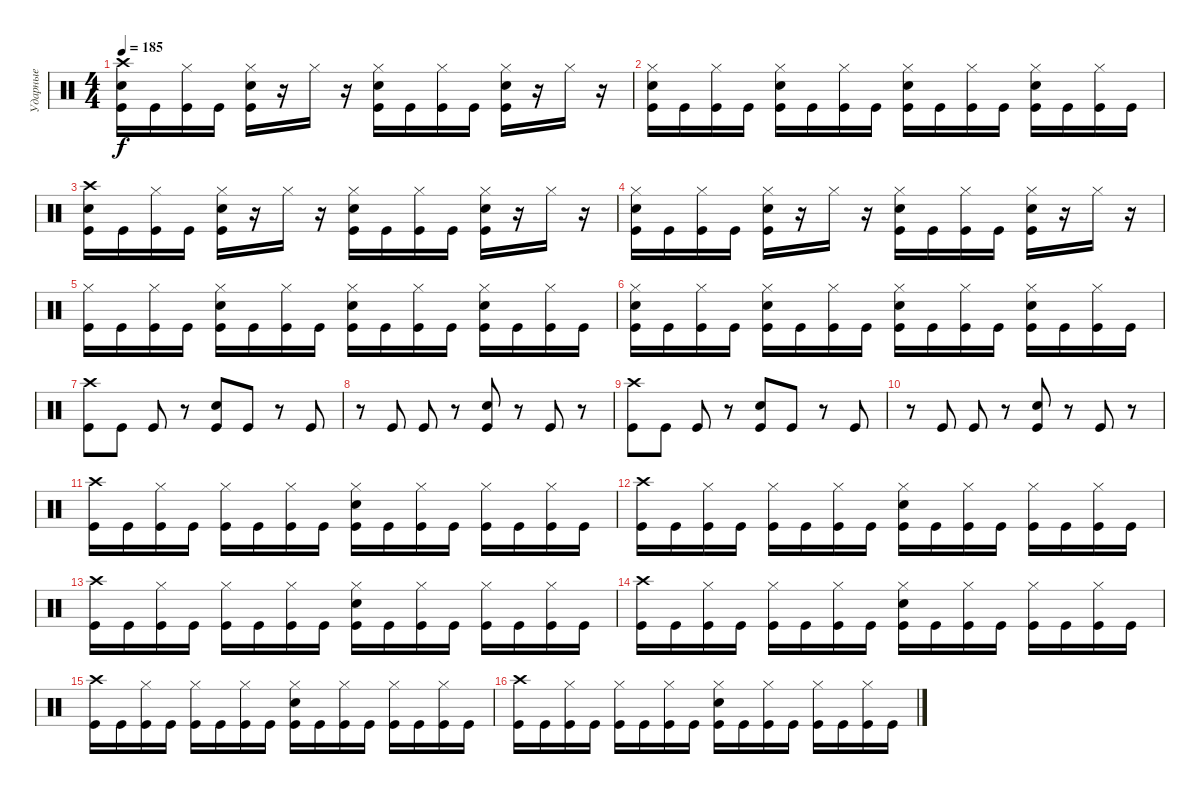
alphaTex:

\track ("Ударные" "Ударные") {instrument percussion}
\staff {score}
\articulation defaults
\ts (4 4)
\tempo 185
\clef neutral
\ks c
("Crash high (hit)" "Electric Snare (hit)" "Kick (hit)").16{dy f} "Kick (hit)".16 ("Hi-Hat (closed)" "Kick (hit)").16 "Kick (hit)".16 ("Hi-Hat (closed)" "Electric Snare (hit)" "Kick (hit)").16 r.16 "Hi-Hat (closed)".16 r.16 ("Hi-Hat (closed)" "Electric Snare (hit)" "Kick (hit)").16 "Kick (hit)".16 ("Hi-Hat (closed)" "Kick (hit)").16 "Kick (hit)".16 ("Hi-Hat (closed)" "Electric Snare (hit)" "Kick (hit)").16 r.16 "Hi-Hat (closed)".16 r.16 |
("Hi-Hat (closed)" "Electric Snare (hit)" "Kick (hit)").16 "Kick (hit)".16 ("Hi-Hat (closed)" "Kick (hit)").16 "Kick (hit)".16 ("Hi-Hat (closed)" "Electric Snare (hit)" "Kick (hit)").16 "Kick (hit)".16 ("Hi-Hat (closed)" "Kick (hit)").16 "Kick (hit)".16 ("Hi-Hat (closed)" "Electric Snare (hit)" "Kick (hit)").16 "Kick (hit)".16 ("Hi-Hat (closed)" "Kick (hit)").16 "Kick (hit)".16 ("Hi-Hat (closed)" "Electric Snare (hit)" "Kick (hit)").16 "Kick (hit)".16 ("Hi-Hat (closed)" "Kick (hit)").16 "Kick (hit)".16 |
("Crash high (hit)" "Electric Snare (hit)" "Kick (hit)").16 "Kick (hit)".16 ("Hi-Hat (closed)" "Kick (hit)").16 "Kick (hit)".16 ("Hi-Hat (closed)" "Electric Snare (hit)" "Kick (hit)").16 r.16 "Hi-Hat (closed)".16 r.16 ("Hi-Hat (closed)" "Electric Snare (hit)" "Kick (hit)").16 "Kick (hit)".16 ("Hi-Hat (closed)" "Kick (hit)").16 "Kick (hit)".16 ("Hi-Hat (closed)" "Electric Snare (hit)" "Kick (hit)").16 r.16 "Hi-Hat (closed)".16 r.16 |
("Hi-Hat (closed)" "Electric Snare (hit)" "Kick (hit)").16 "Kick (hit)".16 ("Hi-Hat (closed)" "Kick (hit)").16 "Kick (hit)".16 ("Hi-Hat (closed)" "Electric Snare (hit)" "Kick (hit)").16 r.16 "Hi-Hat (closed)".16 r.16 ("Hi-Hat (closed)" "Electric Snare (hit)" "Kick (hit)").16 "Kick (hit)".16 ("Hi-Hat (closed)" "Kick (hit)").16 "Kick (hit)".16 ("Hi-Hat (closed)" "Electric Snare (hit)" "Kick (hit)").16 r.16 "Hi-Hat (closed)".16 r.16 |
("Hi-Hat (closed)" "Kick (hit)").16 "Kick (hit)".16 ("Hi-Hat (closed)" "Kick (hit)").16 "Kick (hit)".16 ("Hi-Hat (closed)" "Electric Snare (hit)" "Kick (hit)").16 "Kick (hit)".16 ("Hi-Hat (closed)" "Kick (hit)").16 "Kick (hit)".16 ("Hi-Hat (closed)" "Electric Snare (hit)" "Kick (hit)").16 "Kick (hit)".16 ("Hi-Hat (closed)" "Kick (hit)").16 "Kick (hit)".16 ("Hi-Hat (closed)" "Electric Snare (hit)" "Kick (hit)").16 "Kick (hit)".16 ("Hi-Hat (closed)" "Kick (hit)").16 "Kick (hit)".16 |
("Hi-Hat (closed)" "Electric Snare (hit)" "Kick (hit)").16 "Kick (hit)".16 ("Hi-Hat (closed)" "Kick (hit)").16 "Kick (hit)".16 ("Hi-Hat (closed)" "Electric Snare (hit)" "Kick (hit)").16 "Kick (hit)".16 ("Hi-Hat (closed)" "Kick (hit)").16 "Kick (hit)".16 ("Hi-Hat (closed)" "Electric Snare (hit)" "Kick (hit)").16 "Kick (hit)".16 ("Hi-Hat (closed)" "Kick (hit)").16 "Kick (hit)".16 ("Hi-Hat (closed)" "Electric Snare (hit)" "Kick (hit)").16 "Kick (hit)".16 ("Hi-Hat (closed)" "Kick (hit)").16 "Kick (hit)".16 |
("Crash high (hit)" "Kick (hit)").8 "Kick (hit)".8 "Kick (hit)".8 r.8 ("Electric Snare (hit)" "Kick (hit)").8 "Kick (hit)".8 r.8 "Kick (hit)".8 |
r.8 "Kick (hit)".8 "Kick (hit)".8 r.8 ("Electric Snare (hit)" "Kick (hit)").8 r.8 "Kick (hit)".8 r.8 |
("Crash high (hit)" "Kick (hit)").8 "Kick (hit)".8 "Kick (hit)".8 r.8 ("Electric Snare (hit)" "Kick (hit)").8 "Kick (hit)".8 r.8 "Kick (hit)".8 |
r.8 "Kick (hit)".8 "Kick (hit)".8 r.8 ("Electric Snare (hit)" "Kick (hit)").8 r.8 "Kick (hit)".8 r.8 |
("Crash high (hit)" "Kick (hit)").16 "Kick (hit)".16 ("Hi-Hat (closed)" "Kick (hit)").16 "Kick (hit)".16 ("Hi-Hat (closed)" "Kick (hit)").16 "Kick (hit)".16 ("Hi-Hat (closed)" "Kick (hit)").16 "Kick (hit)".16 ("Hi-Hat (closed)" "Electric Snare (hit)" "Kick (hit)").16 "Kick (hit)".16 ("Hi-Hat (closed)" "Kick (hit)").16 "Kick (hit)".16 ("Hi-Hat (closed)" "Kick (hit)").16 "Kick (hit)".16 ("Hi-Hat (closed)" "Kick (hit)").16 "Kick (hit)".16 |
("Crash high (hit)" "Kick (hit)").16 "Kick (hit)".16 ("Hi-Hat (closed)" "Kick (hit)").16 "Kick (hit)".16 ("Hi-Hat (closed)" "Kick (hit)").16 "Kick (hit)".16 ("Hi-Hat (closed)" "Kick (hit)").16 "Kick (hit)".16 ("Hi-Hat (closed)" "Electric Snare (hit)" "Kick (hit)").16 "Kick (hit)".16 ("Hi-Hat (closed)" "Kick (hit)").16 "Kick (hit)".16 ("Hi-Hat (closed)" "Kick (hit)").16 "Kick (hit)".16 ("Hi-Hat (closed)" "Kick (hit)").16 "Kick (hit)".16 |
("Crash high (hit)" "Kick (hit)").16 "Kick (hit)".16 ("Hi-Hat (closed)" "Kick (hit)").16 "Kick (hit)".16 ("Hi-Hat (closed)" "Kick (hit)").16 "Kick (hit)".16 ("Hi-Hat (closed)" "Kick (hit)").16 "Kick (hit)".16 ("Hi-Hat (closed)" "Electric Snare (hit)" "Kick (hit)").16 "Kick (hit)".16 ("Hi-Hat (closed)" "Kick (hit)").16 "Kick (hit)".16 ("Hi-Hat (closed)" "Kick (hit)").16 "Kick (hit)".16 ("Hi-Hat (closed)" "Kick (hit)").16 "Kick (hit)".16 |
("Crash high (hit)" "Kick (hit)").16 "Kick (hit)".16 ("Hi-Hat (closed)" "Kick (hit)").16 "Kick (hit)".16 ("Hi-Hat (closed)" "Kick (hit)").16 "Kick (hit)".16 ("Hi-Hat (closed)" "Kick (hit)").16 "Kick (hit)".16 ("Hi-Hat (closed)" "Electric Snare (hit)" "Kick (hit)").16 "Kick (hit)".16 ("Hi-Hat (closed)" "Kick (hit)").16 "Kick (hit)".16 ("Hi-Hat (closed)" "Kick (hit)").16 "Kick (hit)".16 ("Hi-Hat (closed)" "Kick (hit)").16 "Kick (hit)".16 |
("Crash high (hit)" "Kick (hit)").16 "Kick (hit)".16 ("Hi-Hat (closed)" "Kick (hit)").16 "Kick (hit)".16 ("Hi-Hat (closed)" "Kick (hit)").16 "Kick (hit)".16 ("Hi-Hat (closed)" "Kick (hit)").16 "Kick (hit)".16 ("Hi-Hat (closed)" "Electric Snare (hit)" "Kick (hit)").16 "Kick (hit)".16 ("Hi-Hat (closed)" "Kick (hit)").16 "Kick (hit)".16 ("Hi-Hat (closed)" "Kick (hit)").16 "Kick (hit)".16 ("Hi-Hat (closed)" "Kick (hit)").16 "Kick (hit)".16 |
("Crash high (hit)" "Kick (hit)").16 "Kick (hit)".16 ("Hi-Hat (closed)" "Kick (hit)").16 "Kick (hit)".16 ("Hi-Hat (closed)" "Kick (hit)").16 "Kick (hit)".16 ("Hi-Hat (closed)" "Kick (hit)").16 "Kick (hit)".16 ("Hi-Hat (closed)" "Electric Snare (hit)" "Kick (hit)").16 "Kick (hit)".16 ("Hi-Hat (closed)" "Kick (hit)").16 "Kick (hit)".16 ("Hi-Hat (closed)" "Kick (hit)").16 "Kick (hit)".16 ("Hi-Hat (closed)" "Kick (hit)").16 "Kick (hit)".16
